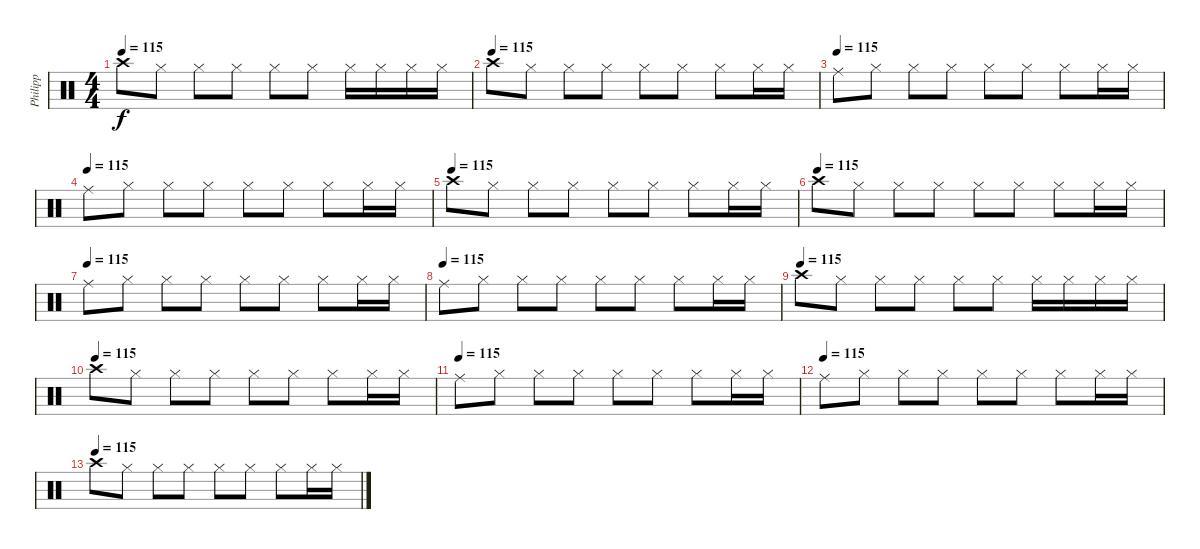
\track ("Philipp" "Philipp") {instrument percussion}
\staff {score}
\articulation defaults
\ts (4 4)
\tempo 115
\clef neutral
\ks c "Crash high (hit)".8{dy f} "Hi-Hat (closed)".8 "Hi-Hat (closed)".8 "Hi-Hat (closed)".8 "Hi-Hat (closed)".8 "Hi-Hat (closed)".8 "Hi-Hat (closed)".16 "Hi-Hat (closed)".16 "Hi-Hat (closed)".16 "Hi-Hat (closed)".16
|
\tempo (115)
"Crash high (hit)".8 "Hi-Hat (closed)".8 "Hi-Hat (closed)".8 "Hi-Hat (closed)".8 "Hi-Hat (closed)".8 "Hi-Hat (closed)".8 "Hi-Hat (closed)".8 "Hi-Hat (closed)".16 "Hi-Hat (closed)".16 |
\tempo (115)
"Ride (middle)".8 "Hi-Hat (closed)".8 "Hi-Hat (closed)".8 "Hi-Hat (closed)".8 "Hi-Hat (closed)".8 "Hi-Hat (closed)".8 "Hi-Hat (closed)".8 "Hi-Hat (closed)".16 "Hi-Hat (closed)".16 |
\tempo (115)
"Ride (middle)".8 "Hi-Hat (closed)".8 "Hi-Hat (closed)".8 "Hi-Hat (closed)".8 "Hi-Hat (closed)".8 "Hi-Hat (closed)".8 "Hi-Hat (closed)".8 "Hi-Hat (closed)".16 "Hi-Hat (closed)".16 |
\tempo (115)
"Crash high (hit)".8{volume 10} "Hi-Hat (closed)".8 "Hi-Hat (closed)".8 "Hi-Hat (closed)".8 "Hi-Hat (closed)".8 "Hi-Hat (closed)".8 "Hi-Hat (closed)".8 "Hi-Hat (closed)".16 "Hi-Hat (closed)".16 |
\tempo (115)
"Crash high (hit)".8 "Hi-Hat (closed)".8 "Hi-Hat (closed)".8 "Hi-Hat (closed)".8 "Hi-Hat (closed)".8 "Hi-Hat (closed)".8 "Hi-Hat (closed)".8 "Hi-Hat (closed)".16 "Hi-Hat (closed)".16 |
\tempo (115)
"Ride (middle)".8{volume 7} "Hi-Hat (closed)".8 "Hi-Hat (closed)".8 "Hi-Hat (closed)".8 "Hi-Hat (closed)".8 "Hi-Hat (closed)".8 "Hi-Hat (closed)".8 "Hi-Hat (closed)".16 "Hi-Hat (closed)".16 |
\tempo (115)
"Ride (middle)".8 "Hi-Hat (closed)".8 "Hi-Hat (closed)".8 "Hi-Hat (closed)".8 "Hi-Hat (closed)".8 "Hi-Hat (closed)".8 "Hi-Hat (closed)".8 "Hi-Hat (closed)".16 "Hi-Hat (closed)".16 |
\tempo (115)
"Crash high (hit)".8{volume 3} "Hi-Hat (closed)".8 "Hi-Hat (closed)".8 "Hi-Hat (closed)".8 "Hi-Hat (closed)".8 "Hi-Hat (closed)".8 "Hi-Hat (closed)".16 "Hi-Hat (closed)".16 "Hi-Hat (closed)".16 "Hi-Hat (closed)".16 |
\tempo (115)
"Crash high (hit)".8 "Hi-Hat (closed)".8 "Hi-Hat (closed)".8 "Hi-Hat (closed)".8 "Hi-Hat (closed)".8 "Hi-Hat (closed)".8 "Hi-Hat (closed)".8 "Hi-Hat (closed)".16 "Hi-Hat (closed)".16 |
\tempo (115)
"Ride (middle)".8{volume 0} "Hi-Hat (closed)".8 "Hi-Hat (closed)".8 "Hi-Hat (closed)".8 "Hi-Hat (closed)".8 "Hi-Hat (closed)".8 "Hi-Hat (closed)".8 "Hi-Hat (closed)".16 "Hi-Hat (closed)".16 |
\tempo (115)
"Ride (middle)".8 "Hi-Hat (closed)".8 "Hi-Hat (closed)".8 "Hi-Hat (closed)".8 "Hi-Hat (closed)".8 "Hi-Hat (closed)".8 "Hi-Hat (closed)".8 "Hi-Hat (closed)".16 "Hi-Hat (closed)".16 |
\tempo (115)
"Crash high (hit)".8 "Hi-Hat (closed)".8 "Hi-Hat (closed)".8 "Hi-Hat (closed)".8 "Hi-Hat (closed)".8 "Hi-Hat (closed)".8 "Hi-Hat (closed)".8 "Hi-Hat (closed)".16 "Hi-Hat (closed)".16
